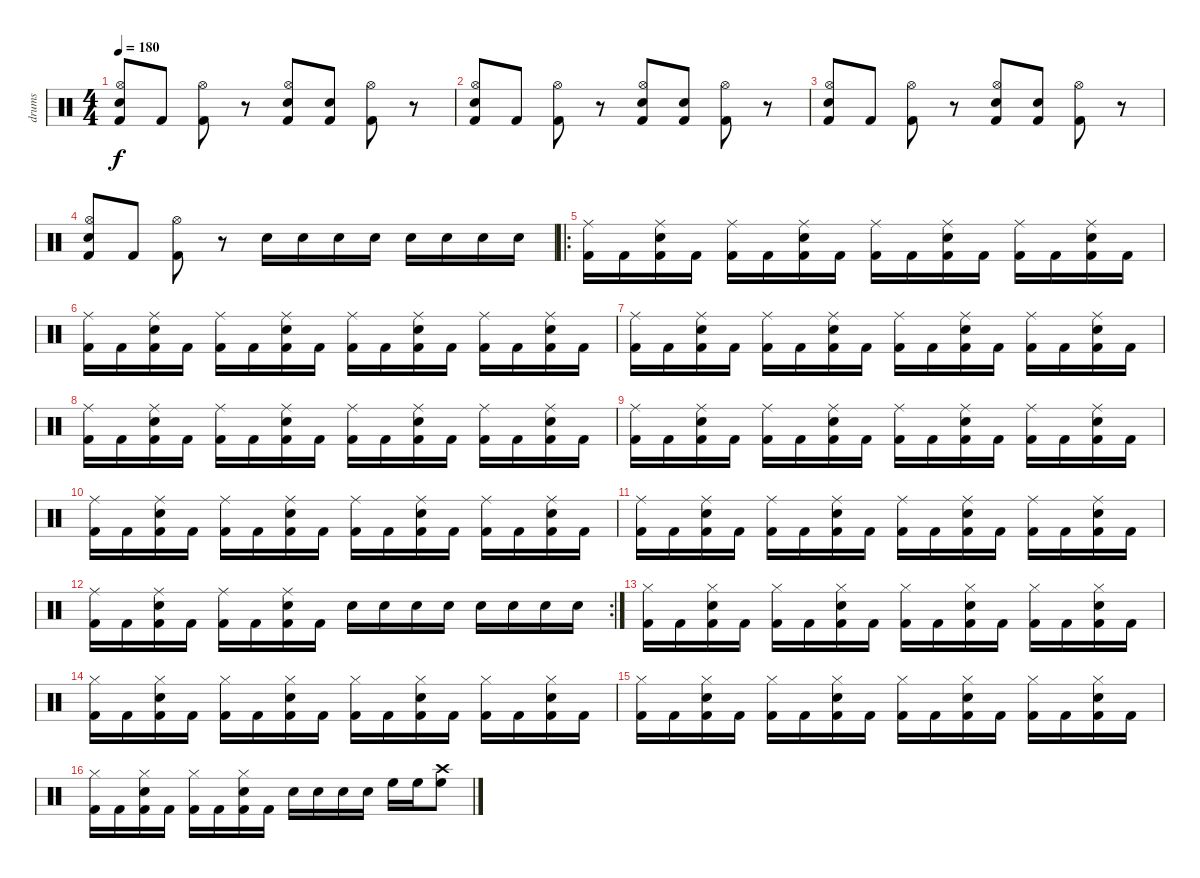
\track ("drums" "drums") {instrument percussion}
\staff {score}
\articulation defaults
\ts (4 4)
\tempo 180
\clef neutral
\ks c
("Snare (hit) 2" "Hi-Hat (open)" "Kick (hit) 2").8{dy f} "Kick (hit) 2".8 ("Hi-Hat (open)" "Kick (hit) 2").8 r.8 ("Snare (hit) 2" "Hi-Hat (open)" "Kick (hit) 2").8 ("Snare (hit) 2" "Kick (hit) 2").8 ("Hi-Hat (open)" "Kick (hit) 2").8 r.8 |
("Snare (hit) 2" "Hi-Hat (open)" "Kick (hit) 2").8 "Kick (hit) 2".8 ("Hi-Hat (open)" "Kick (hit) 2").8 r.8 ("Snare (hit) 2" "Hi-Hat (open)" "Kick (hit) 2").8 ("Snare (hit) 2" "Kick (hit) 2").8 ("Hi-Hat (open)" "Kick (hit) 2").8 r.8 |
("Snare (hit) 2" "Hi-Hat (open)" "Kick (hit) 2").8 "Kick (hit) 2".8 ("Hi-Hat (open)" "Kick (hit) 2").8 r.8 ("Snare (hit) 2" "Hi-Hat (open)" "Kick (hit) 2").8 ("Snare (hit) 2" "Kick (hit) 2").8 ("Hi-Hat (open)" "Kick (hit) 2").8 r.8 |
("Snare (hit) 2" "Hi-Hat (open)" "Kick (hit) 2").8 "Kick (hit) 2".8 ("Hi-Hat (open)" "Kick (hit) 2").8 r.8 "Snare (hit) 2".16 "Snare (hit) 2".16 "Snare (hit) 2".16 "Snare (hit) 2".16 "Electric Snare (hit)".16 "Electric Snare (hit)".16 "Electric Snare (hit)".16 "Electric Snare (hit)".16 |
\ro
("Ride (middle)" "Kick (hit) 2").16 "Kick (hit) 2".16 ("Snare (hit) 2" "Ride (middle)" "Kick (hit) 2").16 "Kick (hit) 2".16 ("Ride (middle)" "Kick (hit) 2").16 "Kick (hit) 2".16 ("Snare (hit) 2" "Ride (middle)" "Kick (hit) 2").16 "Kick (hit) 2".16 ("Ride (middle)" "Kick (hit) 2").16 "Kick (hit) 2".16 ("Snare (hit) 2" "Ride (middle)" "Kick (hit) 2").16 "Kick (hit) 2".16 ("Ride (middle)" "Kick (hit) 2").16 "Kick (hit) 2".16 ("Snare (hit) 2" "Ride (middle)" "Kick (hit) 2").16 "Kick (hit) 2".16 |
("Ride (middle)" "Kick (hit) 2").16 "Kick (hit) 2".16 ("Snare (hit) 2" "Ride (middle)" "Kick (hit) 2").16 "Kick (hit) 2".16 ("Ride (middle)" "Kick (hit) 2").16 "Kick (hit) 2".16 ("Snare (hit) 2" "Ride (middle)" "Kick (hit) 2").16 "Kick (hit) 2".16 ("Ride (middle)" "Kick (hit) 2").16 "Kick (hit) 2".16 ("Snare (hit) 2" "Ride (middle)" "Kick (hit) 2").16 "Kick (hit) 2".16 ("Ride (middle)" "Kick (hit) 2").16 "Kick (hit) 2".16 ("Snare (hit) 2" "Ride (middle)" "Kick (hit) 2").16 "Kick (hit) 2".16 |
("Ride (middle)" "Kick (hit) 2").16 "Kick (hit) 2".16 ("Snare (hit) 2" "Ride (middle)" "Kick (hit) 2").16 "Kick (hit) 2".16 ("Ride (middle)" "Kick (hit) 2").16 "Kick (hit) 2".16 ("Snare (hit) 2" "Ride (middle)" "Kick (hit) 2").16 "Kick (hit) 2".16 ("Ride (middle)" "Kick (hit) 2").16 "Kick (hit) 2".16 ("Snare (hit) 2" "Ride (middle)" "Kick (hit) 2").16 "Kick (hit) 2".16 ("Ride (middle)" "Kick (hit) 2").16 "Kick (hit) 2".16 ("Snare (hit) 2" "Ride (middle)" "Kick (hit) 2").16 "Kick (hit) 2".16 |
("Ride (middle)" "Kick (hit) 2").16 "Kick (hit) 2".16 ("Snare (hit) 2" "Ride (middle)" "Kick (hit) 2").16 "Kick (hit) 2".16 ("Ride (middle)" "Kick (hit) 2").16 "Kick (hit) 2".16 ("Snare (hit) 2" "Ride (middle)" "Kick (hit) 2").16 "Kick (hit) 2".16 ("Ride (middle)" "Kick (hit) 2").16 "Kick (hit) 2".16 ("Snare (hit) 2" "Ride (middle)" "Kick (hit) 2").16 "Kick (hit) 2".16 ("Ride (middle)" "Kick (hit) 2").16 "Kick (hit) 2".16 ("Snare (hit) 2" "Ride (middle)" "Kick (hit) 2").16 "Kick (hit) 2".16 |
("Ride (middle)" "Kick (hit) 2").16 "Kick (hit) 2".16 ("Snare (hit) 2" "Ride (middle)" "Kick (hit) 2").16 "Kick (hit) 2".16 ("Ride (middle)" "Kick (hit) 2").16 "Kick (hit) 2".16 ("Snare (hit) 2" "Ride (middle)" "Kick (hit) 2").16 "Kick (hit) 2".16 ("Ride (middle)" "Kick (hit) 2").16 "Kick (hit) 2".16 ("Snare (hit) 2" "Ride (middle)" "Kick (hit) 2").16 "Kick (hit) 2".16 ("Ride (middle)" "Kick (hit) 2").16 "Kick (hit) 2".16 ("Snare (hit) 2" "Ride (middle)" "Kick (hit) 2").16 "Kick (hit) 2".16 |
("Ride (middle)" "Kick (hit) 2").16 "Kick (hit) 2".16 ("Snare (hit) 2" "Ride (middle)" "Kick (hit) 2").16 "Kick (hit) 2".16 ("Ride (middle)" "Kick (hit) 2").16 "Kick (hit) 2".16 ("Snare (hit) 2" "Ride (middle)" "Kick (hit) 2").16 "Kick (hit) 2".16 ("Ride (middle)" "Kick (hit) 2").16 "Kick (hit) 2".16 ("Snare (hit) 2" "Ride (middle)" "Kick (hit) 2").16 "Kick (hit) 2".16 ("Ride (middle)" "Kick (hit) 2").16 "Kick (hit) 2".16 ("Snare (hit) 2" "Ride (middle)" "Kick (hit) 2").16 "Kick (hit) 2".16 |
("Ride (middle)" "Kick (hit) 2").16 "Kick (hit) 2".16 ("Snare (hit) 2" "Ride (middle)" "Kick (hit) 2").16 "Kick (hit) 2".16 ("Ride (middle)" "Kick (hit) 2").16 "Kick (hit) 2".16 ("Snare (hit) 2" "Ride (middle)" "Kick (hit) 2").16 "Kick (hit) 2".16 ("Ride (middle)" "Kick (hit) 2").16 "Kick (hit) 2".16 ("Snare (hit) 2" "Ride (middle)" "Kick (hit) 2").16 "Kick (hit) 2".16 ("Ride (middle)" "Kick (hit) 2").16 "Kick (hit) 2".16 ("Snare (hit) 2" "Ride (middle)" "Kick (hit) 2").16 "Kick (hit) 2".16 |
\rc 2
("Ride (middle)" "Kick (hit) 2").16 "Kick (hit) 2".16 ("Snare (hit) 2" "Ride (middle)" "Kick (hit) 2").16 "Kick (hit) 2".16 ("Ride (middle)" "Kick (hit) 2").16 "Kick (hit) 2".16 ("Snare (hit) 2" "Ride (middle)" "Kick (hit) 2").16 "Kick (hit) 2".16 "Snare (hit) 2".16 "Snare (hit) 2".16 "Snare (hit) 2".16 "Snare (hit) 2".16 "Electric Snare (hit)".16 "Electric Snare (hit)".16 "Electric Snare (hit)".16 "Electric Snare (hit)".16 |
("Hi-Hat (closed)" "Kick (hit) 2").16 "Kick (hit) 2".16 ("Snare (hit) 2" "Hi-Hat (closed)" "Kick (hit) 2").16 "Kick (hit) 2".16 ("Hi-Hat (closed)" "Kick (hit) 2").16 "Kick (hit) 2".16 ("Snare (hit) 2" "Hi-Hat (closed)" "Kick (hit) 2").16 "Kick (hit) 2".16 ("Hi-Hat (closed)" "Kick (hit) 2").16 "Kick (hit) 2".16 ("Snare (hit) 2" "Hi-Hat (closed)" "Kick (hit) 2").16 "Kick (hit) 2".16 ("Hi-Hat (closed)" "Kick (hit) 2").16 "Kick (hit) 2".16 ("Snare (hit) 2" "Hi-Hat (closed)" "Kick (hit) 2").16 "Kick (hit) 2".16 |
("Hi-Hat (closed)" "Kick (hit) 2").16 "Kick (hit) 2".16 ("Snare (hit) 2" "Hi-Hat (closed)" "Kick (hit) 2").16 "Kick (hit) 2".16 ("Hi-Hat (closed)" "Kick (hit) 2").16 "Kick (hit) 2".16 ("Snare (hit) 2" "Hi-Hat (closed)" "Kick (hit) 2").16 "Kick (hit) 2".16 ("Hi-Hat (closed)" "Kick (hit) 2").16 "Kick (hit) 2".16 ("Snare (hit) 2" "Hi-Hat (closed)" "Kick (hit) 2").16 "Kick (hit) 2".16 ("Hi-Hat (closed)" "Kick (hit) 2").16 "Kick (hit) 2".16 ("Snare (hit) 2" "Hi-Hat (closed)" "Kick (hit) 2").16 "Kick (hit) 2".16 |
("Hi-Hat (closed)" "Kick (hit) 2").16 "Kick (hit) 2".16 ("Snare (hit) 2" "Hi-Hat (closed)" "Kick (hit) 2").16 "Kick (hit) 2".16 ("Hi-Hat (closed)" "Kick (hit) 2").16 "Kick (hit) 2".16 ("Snare (hit) 2" "Hi-Hat (closed)" "Kick (hit) 2").16 "Kick (hit) 2".16 ("Hi-Hat (closed)" "Kick (hit) 2").16 "Kick (hit) 2".16 ("Snare (hit) 2" "Hi-Hat (closed)" "Kick (hit) 2").16 "Kick (hit) 2".16 ("Hi-Hat (closed)" "Kick (hit) 2").16 "Kick (hit) 2".16 ("Snare (hit) 2" "Hi-Hat (closed)" "Kick (hit) 2").16 "Kick (hit) 2".16 |
("Hi-Hat (closed)" "Kick (hit) 2").16 "Kick (hit) 2".16 ("Snare (hit) 2" "Hi-Hat (closed)" "Kick (hit) 2").16 "Kick (hit) 2".16 ("Hi-Hat (closed)" "Kick (hit) 2").16 "Kick (hit) 2".16 ("Snare (hit) 2" "Hi-Hat (closed)" "Kick (hit) 2").16 "Kick (hit) 2".16 "Snare (hit) 2".16 "Snare (hit) 2".16 "Snare (hit) 2".16 "Snare (hit) 2".16 "High Floor Tom (hit)".16 "High Floor Tom (hit)".16 ("Crash high (hit)" "High Floor Tom (hit)").8
